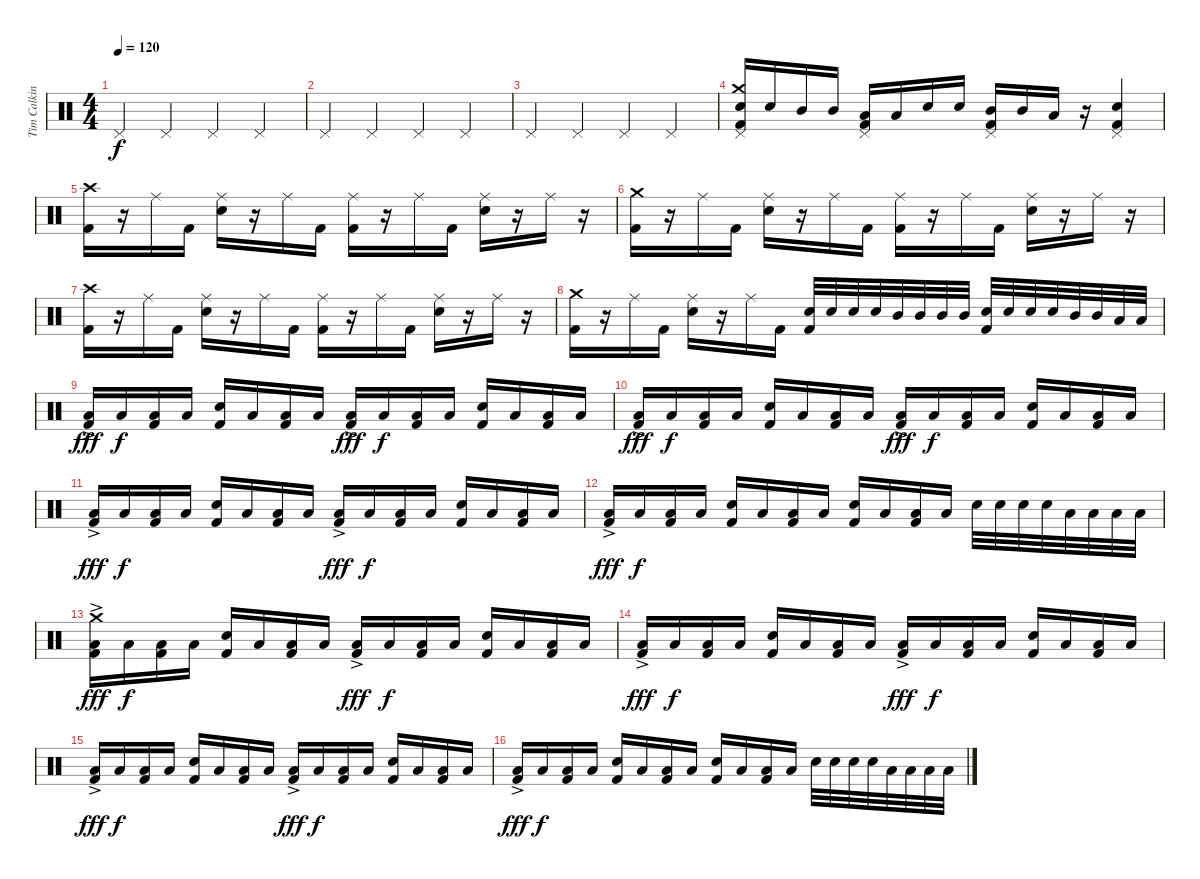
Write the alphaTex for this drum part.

\track ("Tim Calkin" "Tim Calkin") {instrument percussion}
\staff {score}
\articulation defaults
\ts (4 4)
\tempo 120
\clef neutral
\ks c "Pedal Hi-Hat (hit)".4{dy f} "Pedal Hi-Hat (hit)".4 "Pedal Hi-Hat (hit)".4 "Pedal Hi-Hat (hit)".4
|
"Pedal Hi-Hat (hit)".4 "Pedal Hi-Hat (hit)".4 "Pedal Hi-Hat (hit)".4 "Pedal Hi-Hat (hit)".4 |
"Pedal Hi-Hat (hit)".4 "Pedal Hi-Hat (hit)".4 "Pedal Hi-Hat (hit)".4 "Pedal Hi-Hat (hit)".4 |
("Crash medium (hit)" "Snare (hit) 2" "Pedal Hi-Hat (hit)" "Kick (hit) 2").16 "Snare (hit) 2".16 "Mid Tom (hit)".16 "Mid Tom (hit)".16 ("Low Tom (hit)" "Pedal Hi-Hat (hit)" "Kick (hit) 2").16 "Low Tom (hit)".16 "Snare (hit) 2".16 "Snare (hit) 2".16 ("Mid Tom (hit)" "Pedal Hi-Hat (hit)" "Kick (hit) 2").16 "Mid Tom (hit)".16 "Low Tom (hit)".16 r.16 ("Snare (hit) 2" "Pedal Hi-Hat (hit)" "Kick (hit) 2").4 |
("Crash high (hit)" "Kick (hit) 2").16 r.16 "Ride (middle)".16 "Kick (hit) 2".16 ("Ride (middle)" "Snare (hit) 2").16 r.16 "Ride (middle)".16 "Kick (hit) 2".16 ("Ride (middle)" "Kick (hit) 2").16 r.16 "Ride (middle)".16 "Kick (hit) 2".16 ("Ride (middle)" "Snare (hit) 2").16 r.16 "Ride (middle)".16 r.16 |
("Crash medium (hit)" "Kick (hit) 2").16 r.16 "Ride (middle)".16 "Kick (hit) 2".16 ("Ride (middle)" "Snare (hit) 2").16 r.16 "Ride (middle)".16 "Kick (hit) 2".16 ("Ride (middle)" "Kick (hit) 2").16 r.16 "Ride (middle)".16 "Kick (hit) 2".16 ("Ride (middle)" "Snare (hit) 2").16 r.16 "Ride (middle)".16 r.16 |
("Crash high (hit)" "Kick (hit) 2").16 r.16 "Ride (middle)".16 "Kick (hit) 2".16 ("Ride (middle)" "Snare (hit) 2").16 r.16 "Ride (middle)".16 "Kick (hit) 2".16 ("Ride (middle)" "Kick (hit) 2").16 r.16 "Ride (middle)".16 "Kick (hit) 2".16 ("Ride (middle)" "Snare (hit) 2").16 r.16 "Ride (middle)".16 r.16 |
("Crash medium (hit)" "Kick (hit) 2").16 r.16 "Ride (middle)".16 "Kick (hit) 2".16 ("Ride (middle)" "Snare (hit) 2").16 r.16 "Ride (middle)".16 "Kick (hit) 2".16 ("Snare (hit) 2" "Kick (hit) 2").32 "Snare (hit) 2".32 "Snare (hit) 2".32 "Snare (hit) 2".32 "Mid Tom (hit)".32 "Mid Tom (hit)".32 "Mid Tom (hit)".32 "Mid Tom (hit)".32 ("Snare (hit) 2" "Kick (hit) 2").32 "Snare (hit) 2".32 "Snare (hit) 2".32 "Snare (hit) 2".32 "Mid Tom (hit)".32 "Mid Tom (hit)".32 "Low Tom (hit)".32 "Low Tom (hit)".32 |
("Low Floor Tom (hit)"{ac} "Kick (hit) 2").16{dy fff} "Low Tom (hit)".16{dy f} ("Low Floor Tom (hit)" "Kick (hit) 2").16 "Low Tom (hit)".16 ("Snare (hit) 2" "Kick (hit) 2").16 "Low Tom (hit)".16 ("Low Floor Tom (hit)" "Kick (hit) 2").16 "Low Tom (hit)".16 ("Low Floor Tom (hit)"{ac} "Kick (hit) 2").16{dy fff} "Low Tom (hit)".16{dy f} ("Low Floor Tom (hit)" "Kick (hit) 2").16 "Low Tom (hit)".16 ("Snare (hit) 2" "Kick (hit) 2").16 "Low Tom (hit)".16 ("Low Floor Tom (hit)" "Kick (hit) 2").16 "Low Tom (hit)".16 |
("Low Floor Tom (hit)"{ac} "Kick (hit) 2").16{dy fff} "Low Tom (hit)".16{dy f} ("Low Floor Tom (hit)" "Kick (hit) 2").16 "Low Tom (hit)".16 ("Snare (hit) 2" "Kick (hit) 2").16 "Low Tom (hit)".16 ("Low Floor Tom (hit)" "Kick (hit) 2").16 "Low Tom (hit)".16 ("Low Floor Tom (hit)"{ac} "Kick (hit) 2").16{dy fff} "Low Tom (hit)".16{dy f} ("Low Floor Tom (hit)" "Kick (hit) 2").16 "Low Tom (hit)".16 ("Snare (hit) 2" "Kick (hit) 2").16 "Low Tom (hit)".16 ("Low Floor Tom (hit)" "Kick (hit) 2").16 "Low Tom (hit)".16 |
("Low Floor Tom (hit)"{ac} "Kick (hit) 2").16{dy fff} "Low Tom (hit)".16{dy f} ("Low Floor Tom (hit)" "Kick (hit) 2").16 "Low Tom (hit)".16 ("Snare (hit) 2" "Kick (hit) 2").16 "Low Tom (hit)".16 ("Low Floor Tom (hit)" "Kick (hit) 2").16 "Low Tom (hit)".16 ("Low Floor Tom (hit)"{ac} "Kick (hit) 2").16{dy fff} "Low Tom (hit)".16{dy f} ("Low Floor Tom (hit)" "Kick (hit) 2").16 "Low Tom (hit)".16 ("Snare (hit) 2" "Kick (hit) 2").16 "Low Tom (hit)".16 ("Low Floor Tom (hit)" "Kick (hit) 2").16 "Low Tom (hit)".16 |
("Low Floor Tom (hit)"{ac} "Kick (hit) 2").16{dy fff} "Low Tom (hit)".16{dy f} ("Low Floor Tom (hit)" "Kick (hit) 2").16 "Low Tom (hit)".16 ("Snare (hit) 2" "Kick (hit) 2").16 "Low Tom (hit)".16 ("Low Floor Tom (hit)" "Kick (hit) 2").16 "Low Tom (hit)".16 ("Snare (hit) 2" "Kick (hit) 2").16 "Low Tom (hit)".16 ("Low Floor Tom (hit)" "Kick (hit) 2").16 "Low Tom (hit)".16 "Snare (hit) 2".32 "Snare (hit) 2".32 "Snare (hit) 2".32 "Snare (hit) 2".32 "Low Tom (hit)".32 "Low Tom (hit)".32 "Low Floor Tom (hit)".32 "Low Floor Tom (hit)".32 |
("Crash medium (hit)" "Low Floor Tom (hit)"{ac} "Kick (hit) 2").16{dy fff} "Low Tom (hit)".16{dy f} ("Low Floor Tom (hit)" "Kick (hit) 2").16 "Low Tom (hit)".16 ("Snare (hit) 2" "Kick (hit) 2").16 "Low Tom (hit)".16 ("Low Floor Tom (hit)" "Kick (hit) 2").16 "Low Tom (hit)".16 ("Low Floor Tom (hit)"{ac} "Kick (hit) 2").16{dy fff} "Low Tom (hit)".16{dy f} ("Low Floor Tom (hit)" "Kick (hit) 2").16 "Low Tom (hit)".16 ("Snare (hit) 2" "Kick (hit) 2").16 "Low Tom (hit)".16 ("Low Floor Tom (hit)" "Kick (hit) 2").16 "Low Tom (hit)".16 |
("Low Floor Tom (hit)"{ac} "Kick (hit) 2").16{dy fff} "Low Tom (hit)".16{dy f} ("Low Floor Tom (hit)" "Kick (hit) 2").16 "Low Tom (hit)".16 ("Snare (hit) 2" "Kick (hit) 2").16 "Low Tom (hit)".16 ("Low Floor Tom (hit)" "Kick (hit) 2").16 "Low Tom (hit)".16 ("Low Floor Tom (hit)"{ac} "Kick (hit) 2").16{dy fff} "Low Tom (hit)".16{dy f} ("Low Floor Tom (hit)" "Kick (hit) 2").16 "Low Tom (hit)".16 ("Snare (hit) 2" "Kick (hit) 2").16 "Low Tom (hit)".16 ("Low Floor Tom (hit)" "Kick (hit) 2").16 "Low Tom (hit)".16 |
("Low Floor Tom (hit)"{ac} "Kick (hit) 2").16{dy fff} "Low Tom (hit)".16{dy f} ("Low Floor Tom (hit)" "Kick (hit) 2").16 "Low Tom (hit)".16 ("Snare (hit) 2" "Kick (hit) 2").16 "Low Tom (hit)".16 ("Low Floor Tom (hit)" "Kick (hit) 2").16 "Low Tom (hit)".16 ("Low Floor Tom (hit)"{ac} "Kick (hit) 2").16{dy fff} "Low Tom (hit)".16{dy f} ("Low Floor Tom (hit)" "Kick (hit) 2").16 "Low Tom (hit)".16 ("Snare (hit) 2" "Kick (hit) 2").16 "Low Tom (hit)".16 ("Low Floor Tom (hit)" "Kick (hit) 2").16 "Low Tom (hit)".16 |
("Low Floor Tom (hit)"{ac} "Kick (hit) 2").16{dy fff} "Low Tom (hit)".16{dy f} ("Low Floor Tom (hit)" "Kick (hit) 2").16 "Low Tom (hit)".16 ("Snare (hit) 2" "Kick (hit) 2").16 "Low Tom (hit)".16 ("Low Floor Tom (hit)" "Kick (hit) 2").16 "Low Tom (hit)".16 ("Snare (hit) 2" "Kick (hit) 2").16 "Low Tom (hit)".16 ("Low Floor Tom (hit)" "Kick (hit) 2").16 "Low Tom (hit)".16 "Snare (hit) 2".32 "Snare (hit) 2".32 "Snare (hit) 2".32 "Snare (hit) 2".32 "Low Tom (hit)".32 "Low Tom (hit)".32 "Low Floor Tom (hit)".32 "Low Floor Tom (hit)".32
